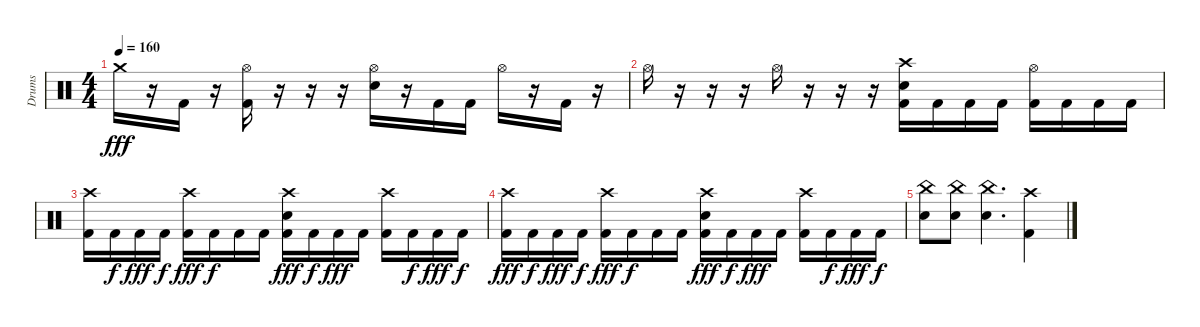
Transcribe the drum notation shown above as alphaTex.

\track ("Drums" "Drums") {instrument percussion}
\staff {score}
\articulation defaults
\ts (4 4)
\tempo 160
\clef neutral
\ks c "Crash medium (hit)".16{dy fff}
r.16 "Kick (hit) 2".16 r.16 ("Hi-Hat (open)" "Kick (hit) 2").16 r.16 r.16 r.16 ("Hi-Hat (open)" "Electric Snare (hit)").16 r.16 "Kick (hit) 2".16 "Kick (hit) 2".16 "Hi-Hat (open)".16 r.16 "Kick (hit) 2".16 r.16 |
"Hi-Hat (open)".16 r.16 r.16 r.16 "Hi-Hat (open)".16 r.16 r.16 r.16 ("Crash high (hit)" "Electric Snare (hit)" "Kick (hit) 2").16 "Kick (hit) 2".16 "Kick (hit) 2".16 "Kick (hit) 2".16 ("Hi-Hat (open)" "Kick (hit) 2").16 "Kick (hit) 2".16 "Kick (hit) 2".16 "Kick (hit) 2".16 |
("Crash high (hit)" "Kick (hit) 2").16 "Kick (hit) 2".16{dy f} "Kick (hit) 2".16{dy fff} "Kick (hit) 2".16{dy f} ("Crash high (hit)" "Kick (hit) 2").16{dy fff} "Kick (hit) 2".16{dy f} "Kick (hit) 2".16 "Kick (hit) 2".16 ("Crash high (hit)" "Electric Snare (hit)" "Kick (hit) 2").16{dy fff} "Kick (hit) 2".16{dy f} "Kick (hit) 2".16{dy fff} "Kick (hit) 2".16 ("Crash high (hit)" "Kick (hit) 2").16 "Kick (hit) 2".16{dy f} "Kick (hit) 2".16{dy fff} "Kick (hit) 2".16{dy f} |
("Crash high (hit)" "Kick (hit) 2").16{dy fff} "Kick (hit) 2".16{dy f} "Kick (hit) 2".16{dy fff} "Kick (hit) 2".16{dy f} ("Crash high (hit)" "Kick (hit) 2").16{dy fff} "Kick (hit) 2".16{dy f} "Kick (hit) 2".16 "Kick (hit) 2".16 ("Crash high (hit)" "Electric Snare (hit)" "Kick (hit) 2").16{dy fff} "Kick (hit) 2".16{dy f} "Kick (hit) 2".16{dy fff} "Kick (hit) 2".16 ("Crash high (hit)" "Kick (hit) 2").16 "Kick (hit) 2".16{dy f} "Kick (hit) 2".16{dy fff} "Kick (hit) 2".16{dy f} |
("China (hit)" "Electric Snare (hit)").8 ("China (hit)" "Electric Snare (hit)").8 ("China (hit)" "Electric Snare (hit)").4{d} ("Crash high (hit)" "Kick (hit) 2").4
